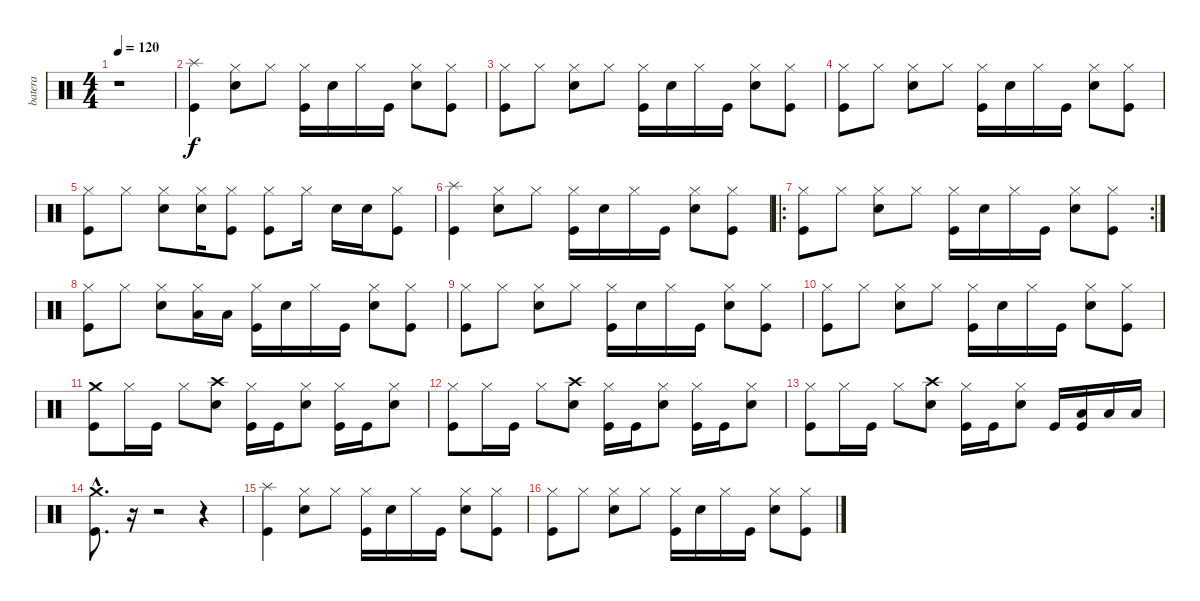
\track ("batera" "batera") {instrument percussion}
\staff {score}
\articulation defaults
\ts (4 4)
\tempo 120
\clef neutral
\ks c
r.1{dy f} |
("Splash (hit)" "Kick (hit)").4 ("Hi-Hat (closed)" "Snare (hit) 2").8 "Hi-Hat (closed)".8 ("Hi-Hat (closed)" "Kick (hit)").16 "Snare (hit) 2".16 "Hi-Hat (closed)".16 "Kick (hit)".16 ("Hi-Hat (closed)" "Snare (hit) 2").8 ("Hi-Hat (closed)" "Kick (hit)").8 |
("Hi-Hat (closed)" "Kick (hit)").8 "Hi-Hat (closed)".8 ("Hi-Hat (closed)" "Snare (hit) 2").8 "Hi-Hat (closed)".8 ("Hi-Hat (closed)" "Kick (hit)").16 "Snare (hit) 2".16 "Hi-Hat (closed)".16 "Kick (hit)".16 ("Hi-Hat (closed)" "Snare (hit) 2").8 ("Hi-Hat (closed)" "Kick (hit)").8 |
("Hi-Hat (closed)" "Kick (hit)").8 "Hi-Hat (closed)".8 ("Hi-Hat (closed)" "Snare (hit) 2").8 "Hi-Hat (closed)".8 ("Hi-Hat (closed)" "Kick (hit)").16 "Snare (hit) 2".16 "Hi-Hat (closed)".16 "Kick (hit)".16 ("Hi-Hat (closed)" "Snare (hit) 2").8 ("Hi-Hat (closed)" "Kick (hit)").8 |
("Hi-Hat (closed)" "Kick (hit)").8 "Hi-Hat (closed)".8 ("Hi-Hat (closed)" "Snare (hit) 2").8 ("Hi-Hat (closed)" "Snare (hit) 2").16 ("Hi-Hat (closed)" "Kick (hit)").8 ("Hi-Hat (closed)" "Kick (hit)").8 "Hi-Hat (closed)".16 "Snare (hit) 2".16 "Snare (hit) 2".16 ("Hi-Hat (closed)" "Kick (hit)").8 |
("Splash (hit)" "Kick (hit)").4 ("Hi-Hat (closed)" "Snare (hit) 2").8 "Hi-Hat (closed)".8 ("Hi-Hat (closed)" "Kick (hit)").16 "Snare (hit) 2".16 "Hi-Hat (closed)".16 "Kick (hit)".16 ("Hi-Hat (closed)" "Snare (hit) 2").8 ("Hi-Hat (closed)" "Kick (hit)").8 |
\ro
\rc 2
("Hi-Hat (closed)" "Kick (hit)").8 "Hi-Hat (closed)".8 ("Hi-Hat (closed)" "Snare (hit) 2").8 "Hi-Hat (closed)".8 ("Hi-Hat (closed)" "Kick (hit)").16 "Snare (hit) 2".16 "Hi-Hat (closed)".16 "Kick (hit)".16 ("Hi-Hat (closed)" "Snare (hit) 2").8 ("Hi-Hat (closed)" "Kick (hit)").8 |
("Hi-Hat (closed)" "Kick (hit)").8 "Hi-Hat (closed)".8 ("Hi-Hat (closed)" "Snare (hit) 2").8 ("Hi-Hat (closed)" "Low Tom (hit)").16 "Low Tom (hit)".16 ("Hi-Hat (closed)" "Kick (hit)").16 "Snare (hit) 2".16 "Hi-Hat (closed)".16 "Kick (hit)".16 ("Hi-Hat (closed)" "Snare (hit) 2").8 ("Hi-Hat (closed)" "Kick (hit)").8 |
("Hi-Hat (closed)" "Kick (hit)").8 "Hi-Hat (closed)".8 ("Hi-Hat (closed)" "Snare (hit) 2").8 "Hi-Hat (closed)".8 ("Hi-Hat (closed)" "Kick (hit)").16 "Snare (hit) 2".16 "Hi-Hat (closed)".16 "Kick (hit)".16 ("Hi-Hat (closed)" "Snare (hit) 2").8 ("Hi-Hat (closed)" "Kick (hit)").8 |
("Hi-Hat (closed)" "Kick (hit)").8 "Hi-Hat (closed)".8 ("Hi-Hat (closed)" "Snare (hit) 2").8 "Hi-Hat (closed)".8 ("Hi-Hat (closed)" "Kick (hit)").16 "Snare (hit) 2".16 "Hi-Hat (closed)".16 "Kick (hit)".16 ("Hi-Hat (closed)" "Snare (hit) 2").8 ("Hi-Hat (closed)" "Kick (hit)").8 |
("Crash medium (hit)" "Kick (hit)").8 "Hi-Hat (closed)".16 "Kick (hit)".16 "Hi-Hat (closed)".8 ("Crash high (hit)" "Snare (hit) 2").8 ("Hi-Hat (closed)" "Kick (hit)").16 "Kick (hit)".16 ("Hi-Hat (closed)" "Snare (hit) 2").8 ("Hi-Hat (closed)" "Kick (hit)").16 "Kick (hit)".16 ("Hi-Hat (closed)" "Snare (hit) 2").8 |
("Hi-Hat (closed)" "Kick (hit)").8 "Hi-Hat (closed)".16 "Kick (hit)".16 "Hi-Hat (closed)".8 ("Crash high (hit)" "Snare (hit) 2").8 ("Hi-Hat (closed)" "Kick (hit)").16 "Kick (hit)".16 ("Hi-Hat (closed)" "Snare (hit) 2").8 ("Hi-Hat (closed)" "Kick (hit)").16 "Kick (hit)".16 ("Hi-Hat (closed)" "Snare (hit) 2").8 |
("Hi-Hat (closed)" "Kick (hit)").8 "Hi-Hat (closed)".16 "Kick (hit)".16 "Hi-Hat (closed)".8 ("Crash high (hit)" "Snare (hit) 2").8 ("Hi-Hat (closed)" "Kick (hit)").16 "Kick (hit)".16 ("Hi-Hat (closed)" "Snare (hit) 2").8 "Kick (hit)".16 ("Low Tom (hit)" "Kick (hit)").16 "Low Tom (hit)".16 "Low Tom (hit)".16 |
("Crash medium (hit)"{hac} "Kick (hit)"{hac}).8{d} r.16 r.2 r.4 |
("Splash (hit)" "Kick (hit)").4 ("Hi-Hat (closed)" "Snare (hit) 2").8 "Hi-Hat (closed)".8 ("Hi-Hat (closed)" "Kick (hit)").16 "Snare (hit) 2".16 "Hi-Hat (closed)".16 "Kick (hit)".16 ("Hi-Hat (closed)" "Snare (hit) 2").8 ("Hi-Hat (closed)" "Kick (hit)").8 |
("Hi-Hat (closed)" "Kick (hit)").8 "Hi-Hat (closed)".8 ("Hi-Hat (closed)" "Snare (hit) 2").8 "Hi-Hat (closed)".8 ("Hi-Hat (closed)" "Kick (hit)").16 "Snare (hit) 2".16 "Hi-Hat (closed)".16 "Kick (hit)".16 ("Hi-Hat (closed)" "Snare (hit) 2").8 ("Hi-Hat (closed)" "Kick (hit)").8
